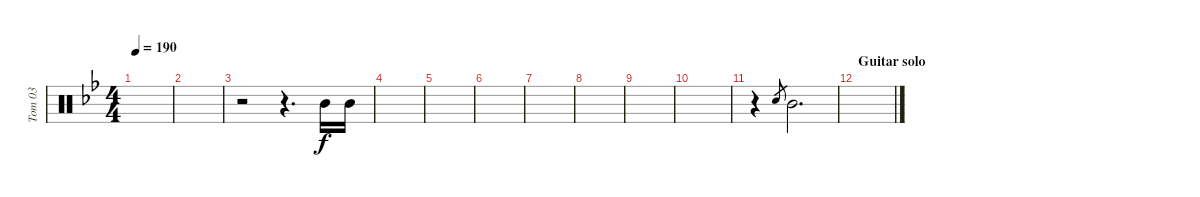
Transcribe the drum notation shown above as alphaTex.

\track ("Tom 03" "Tom 03") {instrument percussion}
\staff {score}
\articulation defaults
\ts (4 4)
\tempo 190
\clef neutral
\ks bb
|
|
r.2 r.4{d} "Mid Tom (hit)".16 "Mid Tom (hit)".16 |
|
|
|
|
|
|
|
r.4 "Snare (hit)".8{gr} "Mid Tom (hit)".2{d} |
\section ("" "Guitar solo")
